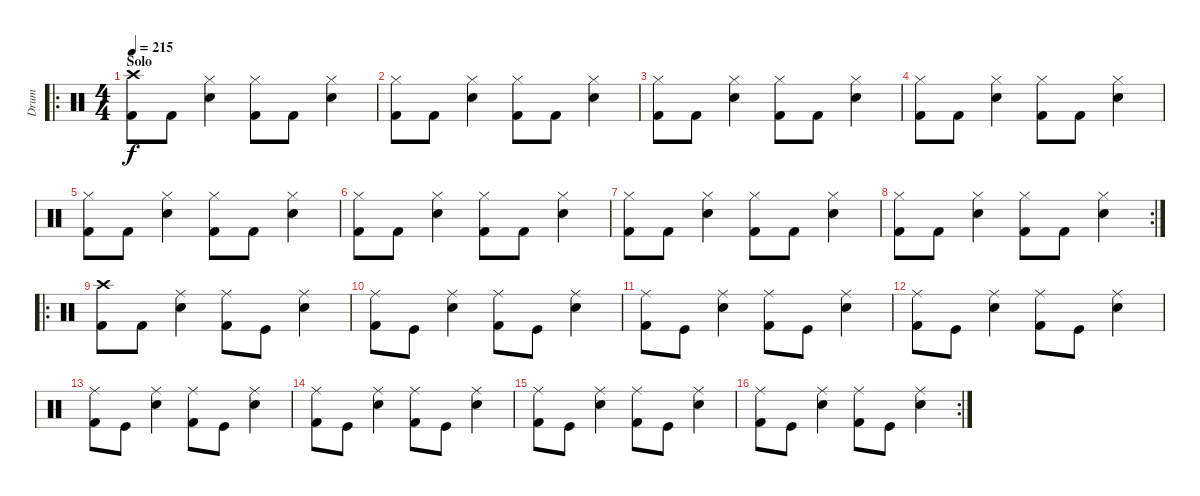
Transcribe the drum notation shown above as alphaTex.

\track ("Drum" "Drum") {instrument percussion}
\staff {score}
\articulation defaults
\ro
\ts (4 4)
\section ("" "Solo")
\tempo 215
\clef neutral
\ks c
("Kick (hit) 2" "Crash high (hit)").8{dy f} "Kick (hit) 2".8 ("Electric Snare (hit)" "Hi-Hat (closed)").4 ("Kick (hit) 2" "Hi-Hat (closed)").8 "Kick (hit) 2".8 ("Electric Snare (hit)" "Hi-Hat (closed)").4 |
("Kick (hit) 2" "Hi-Hat (closed)").8 "Kick (hit) 2".8 ("Electric Snare (hit)" "Hi-Hat (closed)").4 ("Kick (hit) 2" "Hi-Hat (closed)").8 "Kick (hit) 2".8 ("Electric Snare (hit)" "Hi-Hat (closed)").4 |
("Kick (hit) 2" "Hi-Hat (closed)").8 "Kick (hit) 2".8 ("Electric Snare (hit)" "Hi-Hat (closed)").4 ("Kick (hit) 2" "Hi-Hat (closed)").8 "Kick (hit) 2".8 ("Electric Snare (hit)" "Hi-Hat (closed)").4 |
("Kick (hit) 2" "Hi-Hat (closed)").8 "Kick (hit) 2".8 ("Electric Snare (hit)" "Hi-Hat (closed)").4 ("Kick (hit) 2" "Hi-Hat (closed)").8 "Kick (hit) 2".8 ("Electric Snare (hit)" "Hi-Hat (closed)").4 |
("Kick (hit) 2" "Hi-Hat (closed)").8 "Kick (hit) 2".8 ("Electric Snare (hit)" "Hi-Hat (closed)").4 ("Kick (hit) 2" "Hi-Hat (closed)").8 "Kick (hit) 2".8 ("Electric Snare (hit)" "Hi-Hat (closed)").4 |
("Kick (hit) 2" "Hi-Hat (closed)").8 "Kick (hit) 2".8 ("Electric Snare (hit)" "Hi-Hat (closed)").4 ("Kick (hit) 2" "Hi-Hat (closed)").8 "Kick (hit) 2".8 ("Electric Snare (hit)" "Hi-Hat (closed)").4 |
("Kick (hit) 2" "Hi-Hat (closed)").8 "Kick (hit) 2".8 ("Electric Snare (hit)" "Hi-Hat (closed)").4 ("Kick (hit) 2" "Hi-Hat (closed)").8 "Kick (hit) 2".8 ("Electric Snare (hit)" "Hi-Hat (closed)").4 |
\rc 2
("Kick (hit) 2" "Hi-Hat (closed)").8 "Kick (hit) 2".8 ("Electric Snare (hit)" "Hi-Hat (closed)").4 ("Kick (hit) 2" "Hi-Hat (closed)").8 "Kick (hit) 2".8 ("Electric Snare (hit)" "Hi-Hat (closed)").4 |
\ro
("Kick (hit) 2" "Crash high (hit)").8 "Kick (hit) 2".8 ("Electric Snare (hit)" "Ride (middle)").4 ("Kick (hit) 2" "Ride (middle)").8 "Kick (hit)".8 ("Electric Snare (hit)" "Ride (middle)").4 |
("Kick (hit) 2" "Ride (middle)").8 "Kick (hit)".8 ("Electric Snare (hit)" "Ride (middle)").4 ("Kick (hit) 2" "Ride (middle)").8 "Kick (hit)".8 ("Electric Snare (hit)" "Ride (middle)").4 |
("Kick (hit) 2" "Ride (middle)").8 "Kick (hit)".8 ("Electric Snare (hit)" "Ride (middle)").4 ("Kick (hit) 2" "Ride (middle)").8 "Kick (hit)".8 ("Electric Snare (hit)" "Ride (middle)").4 |
("Kick (hit) 2" "Ride (middle)").8 "Kick (hit)".8 ("Electric Snare (hit)" "Ride (middle)").4 ("Kick (hit) 2" "Ride (middle)").8 "Kick (hit)".8 ("Electric Snare (hit)" "Ride (middle)").4 |
("Kick (hit) 2" "Ride (middle)").8 "Kick (hit)".8 ("Electric Snare (hit)" "Ride (middle)").4 ("Kick (hit) 2" "Ride (middle)").8 "Kick (hit)".8 ("Electric Snare (hit)" "Ride (middle)").4 |
("Kick (hit) 2" "Ride (middle)").8 "Kick (hit)".8 ("Electric Snare (hit)" "Ride (middle)").4 ("Kick (hit) 2" "Ride (middle)").8 "Kick (hit)".8 ("Electric Snare (hit)" "Ride (middle)").4 |
("Kick (hit) 2" "Ride (middle)").8 "Kick (hit)".8 ("Electric Snare (hit)" "Ride (middle)").4 ("Kick (hit) 2" "Ride (middle)").8 "Kick (hit)".8 ("Electric Snare (hit)" "Ride (middle)").4 |
\rc 2
("Kick (hit) 2" "Ride (middle)").8 "Kick (hit)".8 ("Electric Snare (hit)" "Ride (middle)").4 ("Kick (hit) 2" "Ride (middle)").8 "Kick (hit)".8 ("Electric Snare (hit)" "Ride (middle)").4
